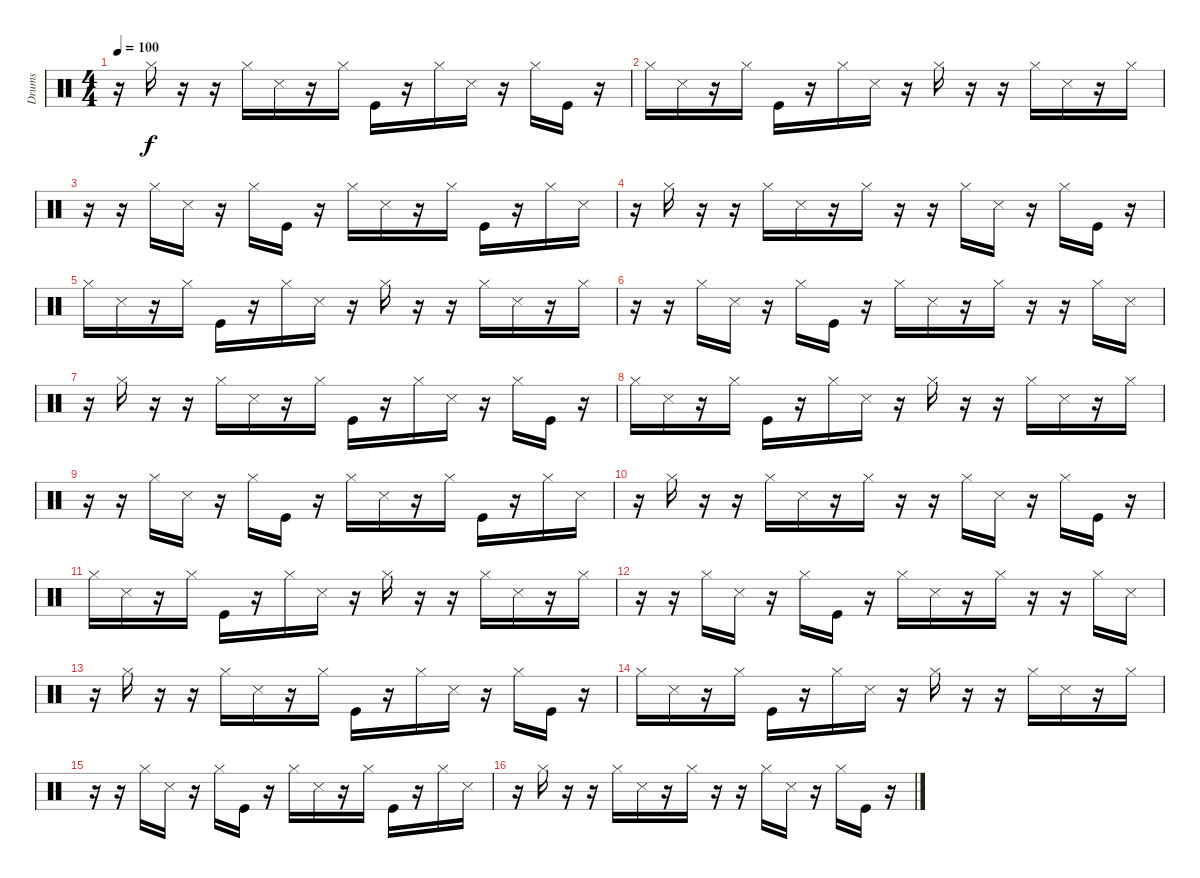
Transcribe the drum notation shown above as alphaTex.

\track ("Drums" "Drums") {instrument percussion}
\staff {score}
\articulation defaults
\ts (4 4)
\tempo 100
\clef neutral
\ks c
r.16{dy f} "Hi-Hat (closed)".16 r.16 r.16 "Hi-Hat (closed)".16 "Snare (side stick) 3".16 r.16 "Hi-Hat (closed)".16 "Kick (hit)".16 r.16 "Hi-Hat (closed)".16 "Snare (side stick) 3".16 r.16 "Hi-Hat (closed)".16 "Kick (hit)".16 r.16 |
"Hi-Hat (closed)".16 "Snare (side stick) 3".16 r.16 "Hi-Hat (closed)".16 "Kick (hit)".16 r.16 "Hi-Hat (closed)".16 "Snare (side stick) 3".16 r.16 "Hi-Hat (closed)".16 r.16 r.16 "Hi-Hat (closed)".16 "Snare (side stick) 3".16 r.16 "Hi-Hat (closed)".16 |
r.16 r.16 "Hi-Hat (closed)".16 "Snare (side stick) 3".16 r.16 "Hi-Hat (closed)".16 "Kick (hit)".16 r.16 "Hi-Hat (closed)".16 "Snare (side stick) 3".16 r.16 "Hi-Hat (closed)".16 "Kick (hit)".16 r.16 "Hi-Hat (closed)".16 "Snare (side stick) 3".16 |
r.16 "Hi-Hat (closed)".16 r.16 r.16 "Hi-Hat (closed)".16 "Snare (side stick) 3".16 r.16 "Hi-Hat (closed)".16 r.16 r.16 "Hi-Hat (closed)".16 "Snare (side stick) 3".16 r.16 "Hi-Hat (closed)".16 "Kick (hit)".16 r.16 |
"Hi-Hat (closed)".16 "Snare (side stick) 3".16 r.16 "Hi-Hat (closed)".16 "Kick (hit)".16 r.16 "Hi-Hat (closed)".16 "Snare (side stick) 3".16 r.16 "Hi-Hat (closed)".16 r.16 r.16 "Hi-Hat (closed)".16 "Snare (side stick) 3".16 r.16 "Hi-Hat (closed)".16 |
r.16 r.16 "Hi-Hat (closed)".16 "Snare (side stick) 3".16 r.16 "Hi-Hat (closed)".16 "Kick (hit)".16 r.16 "Hi-Hat (closed)".16 "Snare (side stick) 3".16 r.16 "Hi-Hat (closed)".16 r.16 r.16 "Hi-Hat (closed)".16 "Snare (side stick) 3".16 |
r.16 "Hi-Hat (closed)".16 r.16 r.16 "Hi-Hat (closed)".16 "Snare (side stick) 3".16 r.16 "Hi-Hat (closed)".16 "Kick (hit)".16 r.16 "Hi-Hat (closed)".16 "Snare (side stick) 3".16 r.16 "Hi-Hat (closed)".16 "Kick (hit)".16 r.16 |
"Hi-Hat (closed)".16 "Snare (side stick) 3".16 r.16 "Hi-Hat (closed)".16 "Kick (hit)".16 r.16 "Hi-Hat (closed)".16 "Snare (side stick) 3".16 r.16 "Hi-Hat (closed)".16 r.16 r.16 "Hi-Hat (closed)".16 "Snare (side stick) 3".16 r.16 "Hi-Hat (closed)".16 |
r.16 r.16 "Hi-Hat (closed)".16 "Snare (side stick) 3".16 r.16 "Hi-Hat (closed)".16 "Kick (hit)".16 r.16 "Hi-Hat (closed)".16 "Snare (side stick) 3".16 r.16 "Hi-Hat (closed)".16 "Kick (hit)".16 r.16 "Hi-Hat (closed)".16 "Snare (side stick) 3".16 |
r.16 "Hi-Hat (closed)".16 r.16 r.16 "Hi-Hat (closed)".16 "Snare (side stick) 3".16 r.16 "Hi-Hat (closed)".16 r.16 r.16 "Hi-Hat (closed)".16 "Snare (side stick) 3".16 r.16 "Hi-Hat (closed)".16 "Kick (hit)".16 r.16 |
"Hi-Hat (closed)".16 "Snare (side stick) 3".16 r.16 "Hi-Hat (closed)".16 "Kick (hit)".16 r.16 "Hi-Hat (closed)".16 "Snare (side stick) 3".16 r.16 "Hi-Hat (closed)".16 r.16 r.16 "Hi-Hat (closed)".16 "Snare (side stick) 3".16 r.16 "Hi-Hat (closed)".16 |
r.16 r.16 "Hi-Hat (closed)".16 "Snare (side stick) 3".16 r.16 "Hi-Hat (closed)".16 "Kick (hit)".16 r.16 "Hi-Hat (closed)".16 "Snare (side stick) 3".16 r.16 "Hi-Hat (closed)".16 r.16 r.16 "Hi-Hat (closed)".16 "Snare (side stick) 3".16 |
r.16 "Hi-Hat (closed)".16 r.16 r.16 "Hi-Hat (closed)".16 "Snare (side stick) 3".16 r.16 "Hi-Hat (closed)".16 "Kick (hit)".16 r.16 "Hi-Hat (closed)".16 "Snare (side stick) 3".16 r.16 "Hi-Hat (closed)".16 "Kick (hit)".16 r.16 |
"Hi-Hat (closed)".16 "Snare (side stick) 3".16 r.16 "Hi-Hat (closed)".16 "Kick (hit)".16 r.16 "Hi-Hat (closed)".16 "Snare (side stick) 3".16 r.16 "Hi-Hat (closed)".16 r.16 r.16 "Hi-Hat (closed)".16 "Snare (side stick) 3".16 r.16 "Hi-Hat (closed)".16 |
r.16 r.16 "Hi-Hat (closed)".16 "Snare (side stick) 3".16 r.16 "Hi-Hat (closed)".16 "Kick (hit)".16 r.16 "Hi-Hat (closed)".16 "Snare (side stick) 3".16 r.16 "Hi-Hat (closed)".16 "Kick (hit)".16 r.16 "Hi-Hat (closed)".16 "Snare (side stick) 3".16 |
r.16 "Hi-Hat (closed)".16 r.16 r.16 "Hi-Hat (closed)".16 "Snare (side stick) 3".16 r.16 "Hi-Hat (closed)".16 r.16 r.16 "Hi-Hat (closed)".16 "Snare (side stick) 3".16 r.16 "Hi-Hat (closed)".16 "Kick (hit)".16 r.16
